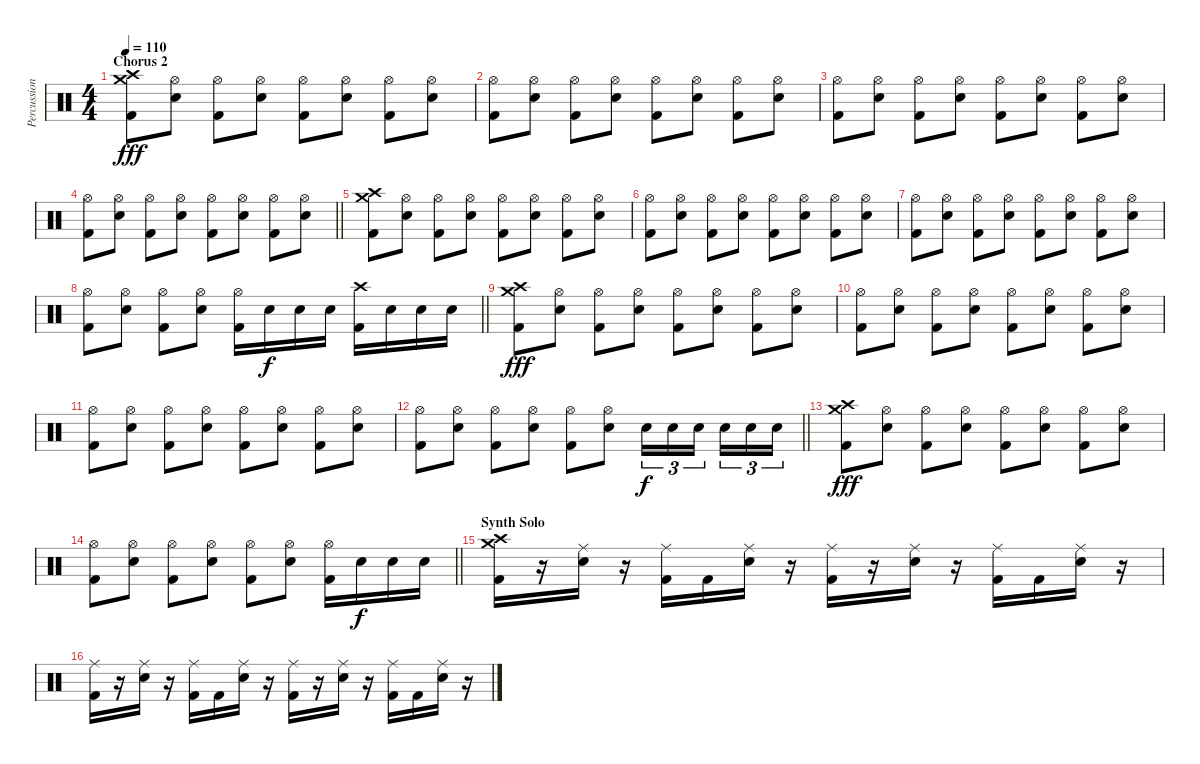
\track ("Percussion" "Percussion") {instrument percussion}
\staff {score}
\articulation defaults
\ts (4 4)
\section ("" "Chorus 2")
\tempo 110
\clef neutral
\ks c
("Kick (hit) 2" "Crash medium (hit)" "Crash high (hit)").8{dy fff} ("Electric Snare (hit)" "Hi-Hat (open)").8 ("Kick (hit) 2" "Hi-Hat (open)").8 ("Electric Snare (hit)" "Hi-Hat (open)").8 ("Kick (hit) 2" "Hi-Hat (open)").8 ("Electric Snare (hit)" "Hi-Hat (open)").8 ("Kick (hit) 2" "Hi-Hat (open)").8 ("Electric Snare (hit)" "Hi-Hat (open)").8 |
("Kick (hit) 2" "Hi-Hat (open)").8 ("Electric Snare (hit)" "Hi-Hat (open)").8 ("Kick (hit) 2" "Hi-Hat (open)").8 ("Electric Snare (hit)" "Hi-Hat (open)").8 ("Kick (hit) 2" "Hi-Hat (open)").8 ("Electric Snare (hit)" "Hi-Hat (open)").8 ("Kick (hit) 2" "Hi-Hat (open)").8 ("Electric Snare (hit)" "Hi-Hat (open)").8 |
("Kick (hit) 2" "Hi-Hat (open)").8 ("Electric Snare (hit)" "Hi-Hat (open)").8 ("Kick (hit) 2" "Hi-Hat (open)").8 ("Electric Snare (hit)" "Hi-Hat (open)").8 ("Kick (hit) 2" "Hi-Hat (open)").8 ("Electric Snare (hit)" "Hi-Hat (open)").8 ("Kick (hit) 2" "Hi-Hat (open)").8 ("Electric Snare (hit)" "Hi-Hat (open)").8 |
\barLineRight lightlight
("Kick (hit) 2" "Hi-Hat (open)").8 ("Electric Snare (hit)" "Hi-Hat (open)").8 ("Kick (hit) 2" "Hi-Hat (open)").8 ("Electric Snare (hit)" "Hi-Hat (open)").8 ("Kick (hit) 2" "Hi-Hat (open)").8 ("Electric Snare (hit)" "Hi-Hat (open)").8 ("Kick (hit) 2" "Hi-Hat (open)").8 ("Electric Snare (hit)" "Hi-Hat (open)").8 |
("Kick (hit) 2" "Crash medium (hit)" "Crash high (hit)").8 ("Electric Snare (hit)" "Hi-Hat (open)").8 ("Kick (hit) 2" "Hi-Hat (open)").8 ("Electric Snare (hit)" "Hi-Hat (open)").8 ("Kick (hit) 2" "Hi-Hat (open)").8 ("Electric Snare (hit)" "Hi-Hat (open)").8 ("Kick (hit) 2" "Hi-Hat (open)").8 ("Electric Snare (hit)" "Hi-Hat (open)").8 |
("Kick (hit) 2" "Hi-Hat (open)").8 ("Electric Snare (hit)" "Hi-Hat (open)").8 ("Kick (hit) 2" "Hi-Hat (open)").8 ("Electric Snare (hit)" "Hi-Hat (open)").8 ("Kick (hit) 2" "Hi-Hat (open)").8 ("Electric Snare (hit)" "Hi-Hat (open)").8 ("Kick (hit) 2" "Hi-Hat (open)").8 ("Electric Snare (hit)" "Hi-Hat (open)").8 |
("Kick (hit) 2" "Hi-Hat (open)").8 ("Electric Snare (hit)" "Hi-Hat (open)").8 ("Kick (hit) 2" "Hi-Hat (open)").8 ("Electric Snare (hit)" "Hi-Hat (open)").8 ("Kick (hit) 2" "Hi-Hat (open)").8 ("Electric Snare (hit)" "Hi-Hat (open)").8 ("Kick (hit) 2" "Hi-Hat (open)").8 ("Electric Snare (hit)" "Hi-Hat (open)").8 |
\barLineRight lightlight
("Kick (hit) 2" "Hi-Hat (open)").8 ("Electric Snare (hit)" "Hi-Hat (open)").8 ("Kick (hit) 2" "Hi-Hat (open)").8 ("Electric Snare (hit)" "Hi-Hat (open)").8 ("Kick (hit) 2" "Hi-Hat (open)").16 "Electric Snare (hit)".16{dy f} "Electric Snare (hit)".16 "Electric Snare (hit)".16 ("Kick (hit) 2" "Crash high (hit)").16 "Electric Snare (hit)".16 "Electric Snare (hit)".16 "Electric Snare (hit)".16 |
("Kick (hit) 2" "Crash medium (hit)" "Crash high (hit)").8{dy fff} ("Electric Snare (hit)" "Hi-Hat (open)").8 ("Kick (hit) 2" "Hi-Hat (open)").8 ("Electric Snare (hit)" "Hi-Hat (open)").8 ("Kick (hit) 2" "Hi-Hat (open)").8 ("Electric Snare (hit)" "Hi-Hat (open)").8 ("Kick (hit) 2" "Hi-Hat (open)").8 ("Electric Snare (hit)" "Hi-Hat (open)").8 |
("Kick (hit) 2" "Hi-Hat (open)").8 ("Electric Snare (hit)" "Hi-Hat (open)").8 ("Kick (hit) 2" "Hi-Hat (open)").8 ("Electric Snare (hit)" "Hi-Hat (open)").8 ("Kick (hit) 2" "Hi-Hat (open)").8 ("Electric Snare (hit)" "Hi-Hat (open)").8 ("Kick (hit) 2" "Hi-Hat (open)").8 ("Electric Snare (hit)" "Hi-Hat (open)").8 |
("Kick (hit) 2" "Hi-Hat (open)").8 ("Electric Snare (hit)" "Hi-Hat (open)").8 ("Kick (hit) 2" "Hi-Hat (open)").8 ("Electric Snare (hit)" "Hi-Hat (open)").8 ("Kick (hit) 2" "Hi-Hat (open)").8 ("Electric Snare (hit)" "Hi-Hat (open)").8 ("Kick (hit) 2" "Hi-Hat (open)").8 ("Electric Snare (hit)" "Hi-Hat (open)").8 |
\barLineRight lightlight
("Kick (hit) 2" "Hi-Hat (open)").8 ("Electric Snare (hit)" "Hi-Hat (open)").8 ("Kick (hit) 2" "Hi-Hat (open)").8 ("Electric Snare (hit)" "Hi-Hat (open)").8 ("Kick (hit) 2" "Hi-Hat (open)").8 ("Electric Snare (hit)" "Hi-Hat (open)").8 "Electric Snare (hit)".16{tu (3 2) dy f} "Electric Snare (hit)".16{tu (3 2)} "Electric Snare (hit)".16{tu (3 2) beam splitsecondary} "Electric Snare (hit)".16{tu (3 2)} "Electric Snare (hit)".16{tu (3 2)} "Electric Snare (hit)".16{tu (3 2)} |
("Kick (hit) 2" "Crash medium (hit)" "Crash high (hit)").8{dy fff} ("Electric Snare (hit)" "Hi-Hat (open)").8 ("Kick (hit) 2" "Hi-Hat (open)").8 ("Electric Snare (hit)" "Hi-Hat (open)").8 ("Kick (hit) 2" "Hi-Hat (open)").8 ("Electric Snare (hit)" "Hi-Hat (open)").8 ("Kick (hit) 2" "Hi-Hat (open)").8 ("Electric Snare (hit)" "Hi-Hat (open)").8 |
\barLineRight lightlight
("Kick (hit) 2" "Hi-Hat (open)").8 ("Electric Snare (hit)" "Hi-Hat (open)").8 ("Kick (hit) 2" "Hi-Hat (open)").8 ("Electric Snare (hit)" "Hi-Hat (open)").8 ("Kick (hit) 2" "Hi-Hat (open)").8 ("Electric Snare (hit)" "Hi-Hat (open)").8 ("Kick (hit) 2" "Hi-Hat (open)").16 "Electric Snare (hit)".16{dy f} "Electric Snare (hit)".16 "Electric Snare (hit)".16 |
\section ("" "Synth Solo")
("Crash medium (hit)" "Kick (hit) 2" "Crash high (hit)").16 r.16 ("Ride (middle)" "Electric Snare (hit)").16 r.16 ("Ride (middle)" "Kick (hit) 2").16 "Kick (hit) 2".16 ("Ride (middle)" "Electric Snare (hit)").16 r.16 ("Ride (middle)" "Kick (hit) 2").16 r.16 ("Ride (middle)" "Electric Snare (hit)").16 r.16 ("Ride (middle)" "Kick (hit) 2").16 "Kick (hit) 2".16 ("Ride (middle)" "Electric Snare (hit)").16 r.16 |
("Ride (middle)" "Kick (hit) 2").16 r.16 ("Ride (middle)" "Electric Snare (hit)").16 r.16 ("Ride (middle)" "Kick (hit) 2").16 "Kick (hit) 2".16 ("Ride (middle)" "Electric Snare (hit)").16 r.16 ("Ride (middle)" "Kick (hit) 2").16 r.16 ("Ride (middle)" "Electric Snare (hit)").16 r.16 ("Ride (middle)" "Kick (hit) 2").16 "Kick (hit) 2".16 ("Ride (middle)" "Electric Snare (hit)").16 r.16
